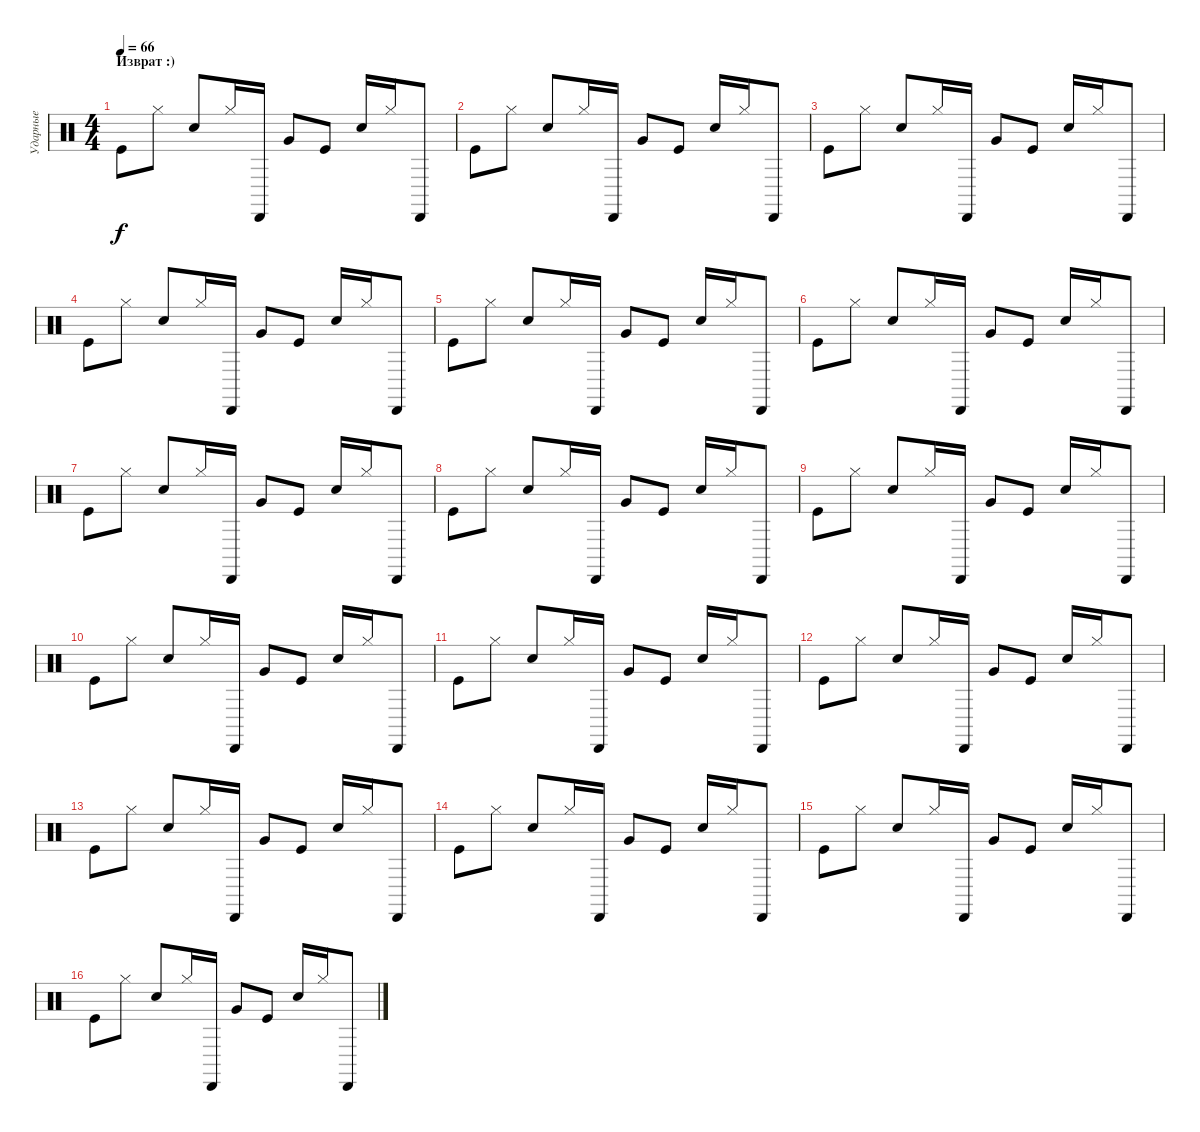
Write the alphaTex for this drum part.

\track ("Ударные" "Ударные") {instrument percussion}
\staff {score}
\articulation defaults
\ts (4 4)
\section ("" "Изврат :)")
\tempo 66
\clef neutral
\ks c "Kick (hit)".8{dy f} "Hi-Hat (closed)".8 "Snare (hit) 2".8 "Hi-Hat (closed)".16 "Cabasa (hit)".16 "Very Low Tom (hit)".8 "Kick (hit)".8 "Snare (hit) 2".16 "Hi-Hat (closed)".16 "Cabasa (hit)".8
|
"Kick (hit)".8 "Hi-Hat (closed)".8 "Snare (hit) 2".8 "Hi-Hat (closed)".16 "Cabasa (hit)".16 "Very Low Tom (hit)".8 "Kick (hit)".8 "Snare (hit) 2".16 "Hi-Hat (closed)".16 "Cabasa (hit)".8 |
"Kick (hit)".8 "Hi-Hat (closed)".8 "Snare (hit) 2".8 "Hi-Hat (closed)".16 "Cabasa (hit)".16 "Very Low Tom (hit)".8 "Kick (hit)".8 "Snare (hit) 2".16 "Hi-Hat (closed)".16 "Cabasa (hit)".8 |
"Kick (hit)".8 "Hi-Hat (closed)".8 "Snare (hit) 2".8 "Hi-Hat (closed)".16 "Cabasa (hit)".16 "Very Low Tom (hit)".8 "Kick (hit)".8 "Snare (hit) 2".16 "Hi-Hat (closed)".16 "Cabasa (hit)".8 |
"Kick (hit)".8 "Hi-Hat (closed)".8 "Snare (hit) 2".8 "Hi-Hat (closed)".16 "Cabasa (hit)".16 "Very Low Tom (hit)".8 "Kick (hit)".8 "Snare (hit) 2".16 "Hi-Hat (closed)".16 "Cabasa (hit)".8 |
"Kick (hit)".8 "Hi-Hat (closed)".8 "Snare (hit) 2".8 "Hi-Hat (closed)".16 "Cabasa (hit)".16 "Very Low Tom (hit)".8 "Kick (hit)".8 "Snare (hit) 2".16 "Hi-Hat (closed)".16 "Cabasa (hit)".8 |
"Kick (hit)".8 "Hi-Hat (closed)".8 "Snare (hit) 2".8 "Hi-Hat (closed)".16 "Cabasa (hit)".16 "Very Low Tom (hit)".8 "Kick (hit)".8 "Snare (hit) 2".16 "Hi-Hat (closed)".16 "Cabasa (hit)".8 |
"Kick (hit)".8 "Hi-Hat (closed)".8 "Snare (hit) 2".8 "Hi-Hat (closed)".16 "Cabasa (hit)".16 "Very Low Tom (hit)".8 "Kick (hit)".8 "Snare (hit) 2".16 "Hi-Hat (closed)".16 "Cabasa (hit)".8 |
"Kick (hit)".8 "Hi-Hat (closed)".8 "Snare (hit) 2".8 "Hi-Hat (closed)".16 "Cabasa (hit)".16 "Very Low Tom (hit)".8 "Kick (hit)".8 "Snare (hit) 2".16 "Hi-Hat (closed)".16 "Cabasa (hit)".8 |
"Kick (hit)".8 "Hi-Hat (closed)".8 "Snare (hit) 2".8 "Hi-Hat (closed)".16 "Cabasa (hit)".16 "Very Low Tom (hit)".8 "Kick (hit)".8 "Snare (hit) 2".16 "Hi-Hat (closed)".16 "Cabasa (hit)".8 |
"Kick (hit)".8 "Hi-Hat (closed)".8 "Snare (hit) 2".8 "Hi-Hat (closed)".16 "Cabasa (hit)".16 "Very Low Tom (hit)".8 "Kick (hit)".8 "Snare (hit) 2".16 "Hi-Hat (closed)".16 "Cabasa (hit)".8 |
"Kick (hit)".8 "Hi-Hat (closed)".8 "Snare (hit) 2".8 "Hi-Hat (closed)".16 "Cabasa (hit)".16 "Very Low Tom (hit)".8 "Kick (hit)".8 "Snare (hit) 2".16 "Hi-Hat (closed)".16 "Cabasa (hit)".8 |
"Kick (hit)".8 "Hi-Hat (closed)".8 "Snare (hit) 2".8 "Hi-Hat (closed)".16 "Cabasa (hit)".16 "Very Low Tom (hit)".8 "Kick (hit)".8 "Snare (hit) 2".16 "Hi-Hat (closed)".16 "Cabasa (hit)".8 |
"Kick (hit)".8 "Hi-Hat (closed)".8 "Snare (hit) 2".8 "Hi-Hat (closed)".16 "Cabasa (hit)".16 "Very Low Tom (hit)".8 "Kick (hit)".8 "Snare (hit) 2".16 "Hi-Hat (closed)".16 "Cabasa (hit)".8 |
"Kick (hit)".8 "Hi-Hat (closed)".8 "Snare (hit) 2".8 "Hi-Hat (closed)".16 "Cabasa (hit)".16 "Very Low Tom (hit)".8 "Kick (hit)".8 "Snare (hit) 2".16 "Hi-Hat (closed)".16 "Cabasa (hit)".8 |
"Kick (hit)".8 "Hi-Hat (closed)".8 "Snare (hit) 2".8 "Hi-Hat (closed)".16 "Cabasa (hit)".16 "Very Low Tom (hit)".8 "Kick (hit)".8 "Snare (hit) 2".16 "Hi-Hat (closed)".16 "Cabasa (hit)".8
